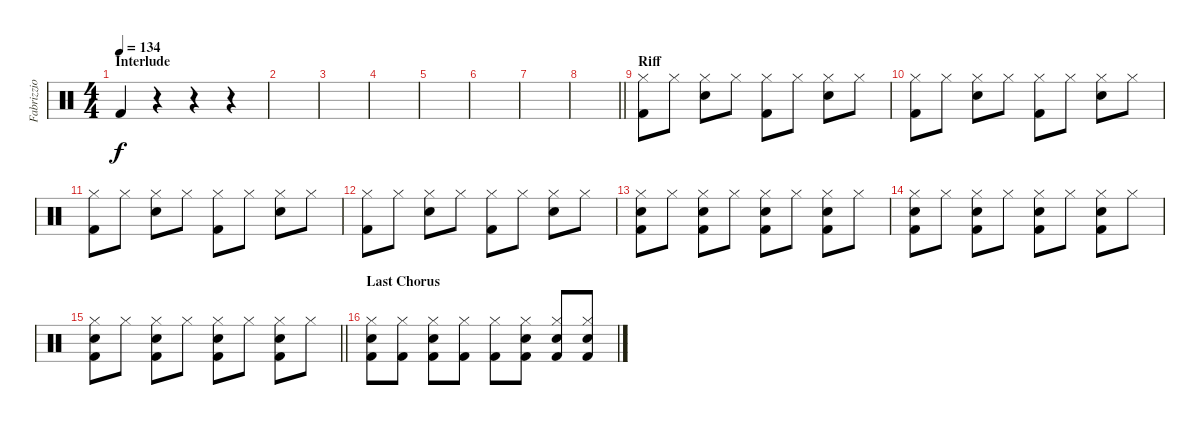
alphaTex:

\track ("Fabrizzio" "Fabrizzio") {instrument percussion}
\staff {score}
\articulation defaults
\ts (4 4)
\section ("" "Interlude")
\tempo 134
\clef neutral
\ks c "Kick (hit) 2".4{dy f}
r.4 r.4 r.4 |
|
|
|
|
|
|
\barLineRight lightlight
|
\section ("" "Riff")
("Hi-Hat (closed)" "Kick (hit) 2").8 "Hi-Hat (closed)".8 ("Hi-Hat (closed)" "Snare (hit) 2").8 "Hi-Hat (closed)".8 ("Hi-Hat (closed)" "Kick (hit) 2").8 "Hi-Hat (closed)".8 ("Hi-Hat (closed)" "Snare (hit) 2").8 "Hi-Hat (closed)".8 |
("Hi-Hat (closed)" "Kick (hit) 2").8 "Hi-Hat (closed)".8 ("Hi-Hat (closed)" "Snare (hit) 2").8 "Hi-Hat (closed)".8 ("Hi-Hat (closed)" "Kick (hit) 2").8 "Hi-Hat (closed)".8 ("Hi-Hat (closed)" "Snare (hit) 2").8 "Hi-Hat (closed)".8 |
("Hi-Hat (closed)" "Kick (hit) 2").8 "Hi-Hat (closed)".8 ("Hi-Hat (closed)" "Snare (hit) 2").8 "Hi-Hat (closed)".8 ("Hi-Hat (closed)" "Kick (hit) 2").8 "Hi-Hat (closed)".8 ("Hi-Hat (closed)" "Snare (hit) 2").8 "Hi-Hat (closed)".8 |
("Hi-Hat (closed)" "Kick (hit) 2").8 "Hi-Hat (closed)".8 ("Hi-Hat (closed)" "Snare (hit) 2").8 "Hi-Hat (closed)".8 ("Hi-Hat (closed)" "Kick (hit) 2").8 "Hi-Hat (closed)".8 ("Hi-Hat (closed)" "Snare (hit) 2").8 "Hi-Hat (closed)".8 |
("Hi-Hat (closed)" "Snare (hit) 2" "Kick (hit) 2").8 "Hi-Hat (closed)".8 ("Hi-Hat (closed)" "Snare (hit) 2" "Kick (hit) 2").8 "Hi-Hat (closed)".8 ("Hi-Hat (closed)" "Snare (hit) 2" "Kick (hit) 2").8 "Hi-Hat (closed)".8 ("Hi-Hat (closed)" "Snare (hit) 2" "Kick (hit) 2").8 "Hi-Hat (closed)".8 |
("Hi-Hat (closed)" "Snare (hit) 2" "Kick (hit) 2").8 "Hi-Hat (closed)".8 ("Hi-Hat (closed)" "Snare (hit) 2" "Kick (hit) 2").8 "Hi-Hat (closed)".8 ("Hi-Hat (closed)" "Snare (hit) 2" "Kick (hit) 2").8 "Hi-Hat (closed)".8 ("Hi-Hat (closed)" "Snare (hit) 2" "Kick (hit) 2").8 "Hi-Hat (closed)".8 |
\barLineRight lightlight
("Hi-Hat (closed)" "Snare (hit) 2" "Kick (hit) 2").8 "Hi-Hat (closed)".8 ("Hi-Hat (closed)" "Snare (hit) 2" "Kick (hit) 2").8 "Hi-Hat (closed)".8 ("Hi-Hat (closed)" "Snare (hit) 2" "Kick (hit) 2").8 "Hi-Hat (closed)".8 ("Hi-Hat (closed)" "Snare (hit) 2" "Kick (hit) 2").8 "Hi-Hat (closed)".8 |
\section ("" "Last Chorus")
("Hi-Hat (closed)" "Snare (hit) 2" "Kick (hit) 2").8 ("Hi-Hat (closed)" "Kick (hit) 2").8 ("Hi-Hat (closed)" "Snare (hit) 2" "Kick (hit) 2").8 ("Hi-Hat (closed)" "Kick (hit) 2").8 ("Hi-Hat (closed)" "Kick (hit) 2").8 ("Hi-Hat (closed)" "Snare (hit) 2" "Kick (hit) 2").8 ("Hi-Hat (closed)" "Snare (hit) 2" "Kick (hit) 2").8 ("Hi-Hat (closed)" "Snare (hit) 2" "Kick (hit) 2").8
